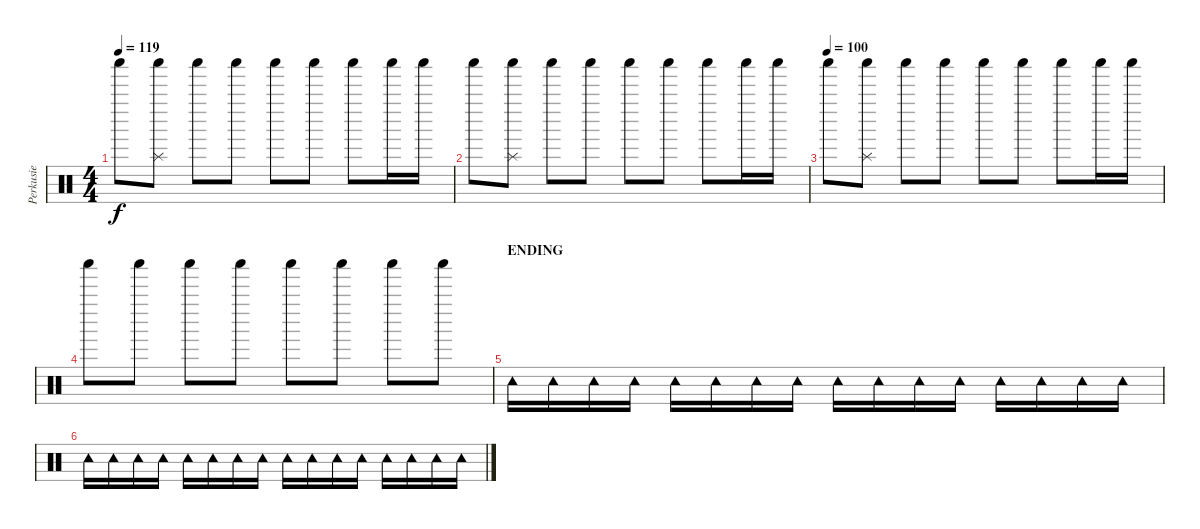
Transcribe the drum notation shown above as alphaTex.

\track ("Perkusie" "Perkusie") {instrument percussion}
\staff {score}
\articulation defaults
\ts (4 4)
\tempo 119
\clef neutral
\ks c "Shaker (hit)".8{dy f}
("Shaker (hit)" "Splash (hit)").8 "Shaker (hit)".8 "Shaker (hit)".8 "Shaker (hit)".8 "Shaker (hit)".8 "Shaker (hit)".8 "Shaker (hit)".16 "Shaker (hit)".16 |
"Shaker (hit)".8 ("Shaker (hit)" "Splash (hit)").8 "Shaker (hit)".8 "Shaker (hit)".8 "Shaker (hit)".8 "Shaker (hit)".8 "Shaker (hit)".8 "Shaker (hit)".16 "Shaker (hit)".16 |
\tempo (100)
"Shaker (hit)".8 ("Shaker (hit)" "Splash (hit)").8 "Shaker (hit)".8 "Shaker (hit)".8 "Shaker (hit)".8 "Shaker (hit)".8 "Shaker (hit)".8 "Shaker (hit)".16 "Shaker (hit)".16 |
"Shaker (hit)".8 "Shaker (hit)".8 "Shaker (hit)".8 "Shaker (hit)".8 "Shaker (hit)".8 "Shaker (hit)".8 "Shaker (hit)".8 "Shaker (hit)".8 |
\section ("" "ENDING")
"Tambourine (hit)".16{volume 0} "Tambourine (hit)".16 "Tambourine (hit)".16 "Tambourine (hit)".16 "Tambourine (hit)".16 "Tambourine (hit)".16 "Tambourine (hit)".16 "Tambourine (hit)".16 "Tambourine (hit)".16 "Tambourine (hit)".16 "Tambourine (hit)".16 "Tambourine (hit)".16 "Tambourine (hit)".16 "Tambourine (hit)".16 "Tambourine (hit)".16 "Tambourine (hit)".16 |
"Tambourine (hit)".16 "Tambourine (hit)".16 "Tambourine (hit)".16 "Tambourine (hit)".16 "Tambourine (hit)".16 "Tambourine (hit)".16 "Tambourine (hit)".16 "Tambourine (hit)".16 "Tambourine (hit)".16 "Tambourine (hit)".16 "Tambourine (hit)".16 "Tambourine (hit)".16 "Tambourine (hit)".16 "Tambourine (hit)".16 "Tambourine (hit)".16 "Tambourine (hit)".16
